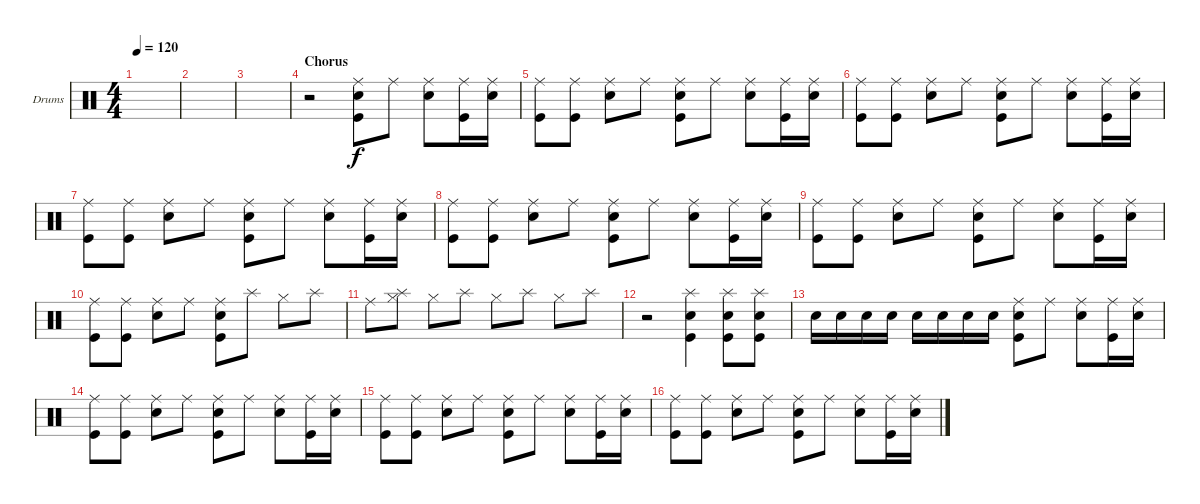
\defaultSystemsLayout 4
\bracketExtendMode groupsimilarinstruments
\firstSystemTrackNameOrientation horizontal
\otherSystemsTrackNameOrientation horizontal
\track ("Drumkit" "Drums") {instrument percussion}
\staff {score}
\articulation defaults
\ts (4 4)
\tempo 120
\clef neutral
\ks c
|
|
|
\section ("" "Chorus")
r.2 ("Snare (hit) 2" "Kick (hit)" "Ride (middle)").8 "Ride (middle)".8 ("Ride (middle)" "Snare (hit) 2").8 ("Ride (middle)" "Kick (hit)").16 ("Snare (hit) 2" "Ride (middle)").16 |
("Ride (middle)" "Kick (hit)").8 ("Ride (middle)" "Kick (hit)").8 ("Ride (middle)" "Snare (hit) 2").8 "Ride (middle)".8 ("Ride (middle)" "Snare (hit) 2" "Kick (hit)").8 "Ride (middle)".8 ("Ride (middle)" "Snare (hit) 2").8 ("Ride (middle)" "Kick (hit)").16 ("Ride (middle)" "Snare (hit) 2").16 |
("Ride (middle)" "Kick (hit)").8 ("Ride (middle)" "Kick (hit)").8 ("Ride (middle)" "Snare (hit) 2").8 "Ride (middle)".8 ("Ride (middle)" "Snare (hit) 2" "Kick (hit)").8 "Ride (middle)".8 ("Ride (middle)" "Snare (hit) 2").8 ("Ride (middle)" "Kick (hit)").16 ("Snare (hit) 2" "Ride (middle)").16 |
("Ride (middle)" "Kick (hit)").8 ("Ride (middle)" "Kick (hit)").8 ("Ride (middle)" "Snare (hit) 2").8 "Ride (middle)".8 ("Ride (middle)" "Snare (hit) 2" "Kick (hit)").8 "Ride (middle)".8 ("Ride (middle)" "Snare (hit) 2").8 ("Ride (middle)" "Kick (hit)").16 ("Snare (hit) 2" "Ride (middle)").16 |
("Ride (middle)" "Kick (hit)").8 ("Ride (middle)" "Kick (hit)").8 ("Ride (middle)" "Snare (hit) 2").8 "Ride (middle)".8 ("Ride (middle)" "Snare (hit) 2" "Kick (hit)").8 "Ride (middle)".8 ("Ride (middle)" "Snare (hit) 2").8 ("Ride (middle)" "Kick (hit)").16 ("Snare (hit) 2" "Ride (middle)").16 |
("Ride (middle)" "Kick (hit)").8 ("Ride (middle)" "Kick (hit)").8 ("Ride (middle)" "Snare (hit) 2").8 "Ride (middle)".8 ("Ride (middle)" "Snare (hit) 2" "Kick (hit)").8 "Ride (middle)".8 ("Ride (middle)" "Snare (hit) 2").8 ("Ride (middle)" "Kick (hit)").16 ("Snare (hit) 2" "Ride (middle)").16 |
("Ride (middle)" "Kick (hit)").8 ("Ride (middle)" "Kick (hit)").8 ("Ride (middle)" "Snare (hit) 2").8 "Ride (middle)".8 ("Snare (hit) 2" "Kick (hit)" "Ride (middle)").8 "Splash (hit)".8 "Hi-Hat (closed)".8 "Splash (hit)".8 |
"Ride (middle)".8 ("Splash (hit)" "Hi-Hat (closed)").8 "Hi-Hat (closed)".8 "Splash (hit)".8 "Hi-Hat (closed)".8 "Splash (hit)".8 "Hi-Hat (closed)".8 "Splash (hit)".8 |
r.2 ("Snare (hit) 2" "Kick (hit)" "Splash (hit)").4 ("Snare (hit) 2" "Kick (hit)" "Splash (hit)").8 ("Kick (hit)" "Snare (hit) 2" "Splash (hit)").8 |
"Snare (hit) 2".16 "Snare (hit) 2".16 "Snare (hit) 2".16 "Snare (hit) 2".16 "Snare (hit) 2".16 "Snare (hit) 2".16 "Snare (hit) 2".16 "Snare (hit) 2".16 ("Snare (hit) 2" "Kick (hit)" "Ride (middle)").8 "Ride (middle)".8 ("Ride (middle)" "Snare (hit) 2").8 ("Ride (middle)" "Kick (hit)").16 ("Snare (hit) 2" "Ride (middle)").16 |
("Ride (middle)" "Kick (hit)").8 ("Ride (middle)" "Kick (hit)").8 ("Ride (middle)" "Snare (hit) 2").8 "Ride (middle)".8 ("Ride (middle)" "Snare (hit) 2" "Kick (hit)").8 "Ride (middle)".8 ("Ride (middle)" "Snare (hit) 2").8 ("Ride (middle)" "Kick (hit)").16 ("Ride (middle)" "Snare (hit) 2").16 |
("Ride (middle)" "Kick (hit)").8 ("Ride (middle)" "Kick (hit)").8 ("Ride (middle)" "Snare (hit) 2").8 "Ride (middle)".8 ("Ride (middle)" "Snare (hit) 2" "Kick (hit)").8 "Ride (middle)".8 ("Ride (middle)" "Snare (hit) 2").8 ("Ride (middle)" "Kick (hit)").16 ("Snare (hit) 2" "Ride (middle)").16 |
("Ride (middle)" "Kick (hit)").8 ("Ride (middle)" "Kick (hit)").8 ("Ride (middle)" "Snare (hit) 2").8 "Ride (middle)".8 ("Ride (middle)" "Snare (hit) 2" "Kick (hit)").8 "Ride (middle)".8 ("Ride (middle)" "Snare (hit) 2").8 ("Ride (middle)" "Kick (hit)").16 ("Snare (hit) 2" "Ride (middle)").16
